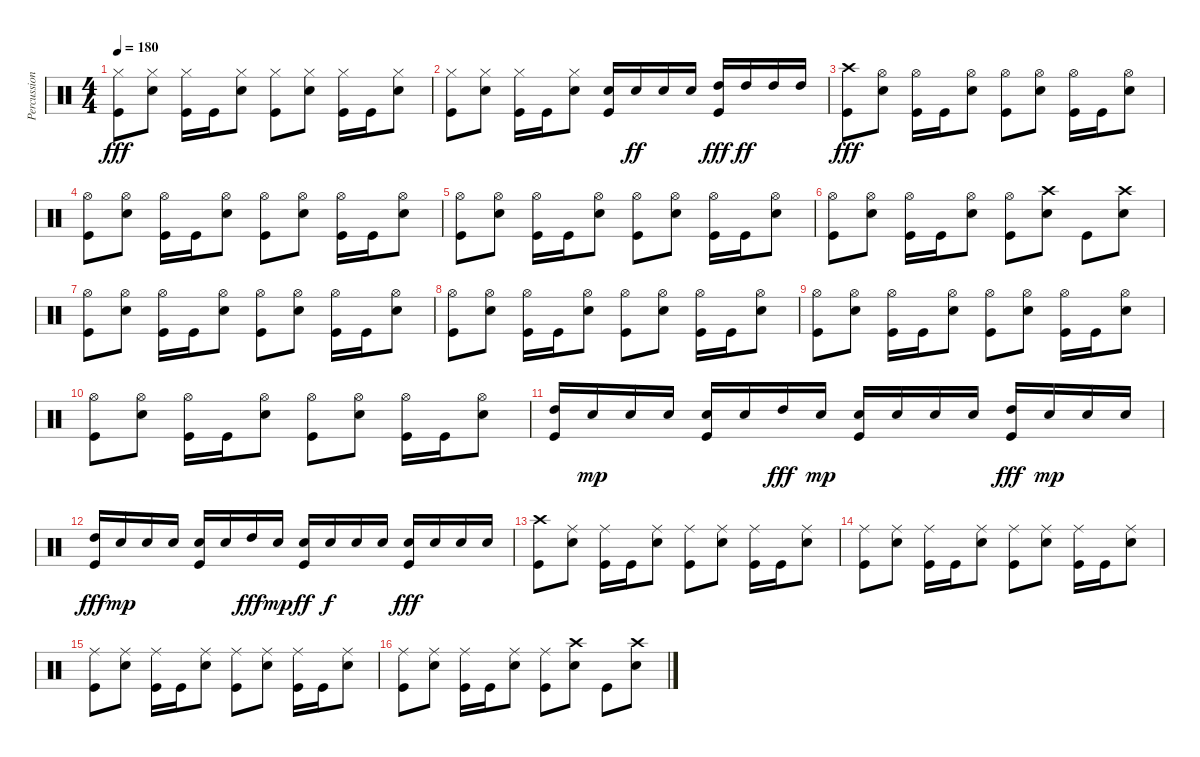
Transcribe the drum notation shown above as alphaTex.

\track ("Percussion" "Percussion") {instrument percussion}
\staff {score}
\articulation defaults
\ts (4 4)
\tempo 180
\clef neutral
\ks c
("Kick (hit)" "Hi-Hat (closed)").8{dy fff} ("Snare (hit) 2" "Hi-Hat (closed)").8 ("Kick (hit)" "Hi-Hat (closed)").16 "Kick (hit)".16 ("Snare (hit) 2" "Hi-Hat (closed)").8 ("Kick (hit)" "Hi-Hat (closed)").8 ("Snare (hit) 2" "Hi-Hat (closed)").8 ("Kick (hit)" "Hi-Hat (closed)").16 "Kick (hit)".16 ("Snare (hit) 2" "Hi-Hat (closed)").8 |
("Kick (hit)" "Hi-Hat (closed)").8 ("Snare (hit) 2" "Hi-Hat (closed)").8 ("Kick (hit)" "Hi-Hat (closed)").16 "Kick (hit)".16 ("Snare (hit) 2" "Hi-Hat (closed)").8 ("Kick (hit)" "Snare (hit) 2").16 "Snare (hit) 2".16{dy ff} "Snare (hit) 2".16 "Snare (hit) 2".16 ("Kick (hit)" "High Tom (hit)").16{dy fff} "High Tom (hit)".16{dy ff} "High Tom (hit)".16 "High Tom (hit)".16 |
("Kick (hit)" "Crash high (hit)").8{dy fff} ("Snare (hit) 2" "Hi-Hat (open)").8 ("Kick (hit)" "Hi-Hat (open)").16 "Kick (hit)".16 ("Snare (hit) 2" "Hi-Hat (open)").8 ("Kick (hit)" "Hi-Hat (open)").8 ("Snare (hit) 2" "Hi-Hat (open)").8 ("Kick (hit)" "Hi-Hat (open)").16 "Kick (hit)".16 ("Snare (hit) 2" "Hi-Hat (open)").8 |
("Kick (hit)" "Hi-Hat (open)").8 ("Snare (hit) 2" "Hi-Hat (open)").8 ("Kick (hit)" "Hi-Hat (open)").16 "Kick (hit)".16 ("Snare (hit) 2" "Hi-Hat (open)").8 ("Kick (hit)" "Hi-Hat (open)").8 ("Snare (hit) 2" "Hi-Hat (open)").8 ("Kick (hit)" "Hi-Hat (open)").16 "Kick (hit)".16 ("Snare (hit) 2" "Hi-Hat (open)").8 |
("Kick (hit)" "Hi-Hat (open)").8 ("Snare (hit) 2" "Hi-Hat (open)").8 ("Kick (hit)" "Hi-Hat (open)").16 "Kick (hit)".16 ("Snare (hit) 2" "Hi-Hat (open)").8 ("Kick (hit)" "Hi-Hat (open)").8 ("Snare (hit) 2" "Hi-Hat (open)").8 ("Kick (hit)" "Hi-Hat (open)").16 "Kick (hit)".16 ("Snare (hit) 2" "Hi-Hat (open)").8 |
("Kick (hit)" "Hi-Hat (open)").8 ("Snare (hit) 2" "Hi-Hat (open)").8 ("Kick (hit)" "Hi-Hat (open)").16 "Kick (hit)".16 ("Snare (hit) 2" "Hi-Hat (open)").8 ("Kick (hit)" "Hi-Hat (open)").8 ("Snare (hit) 2" "Crash high (hit)").8 "Kick (hit)".8 ("Snare (hit) 2" "Crash high (hit)").8 |
("Kick (hit)" "Hi-Hat (open)").8 ("Snare (hit) 2" "Hi-Hat (open)").8 ("Kick (hit)" "Hi-Hat (open)").16 "Kick (hit)".16 ("Snare (hit) 2" "Hi-Hat (open)").8 ("Kick (hit)" "Hi-Hat (open)").8 ("Snare (hit) 2" "Hi-Hat (open)").8 ("Kick (hit)" "Hi-Hat (open)").16 "Kick (hit)".16 ("Snare (hit) 2" "Hi-Hat (open)").8 |
("Kick (hit)" "Hi-Hat (open)").8 ("Snare (hit) 2" "Hi-Hat (open)").8 ("Kick (hit)" "Hi-Hat (open)").16 "Kick (hit)".16 ("Snare (hit) 2" "Hi-Hat (open)").8 ("Kick (hit)" "Hi-Hat (open)").8 ("Snare (hit) 2" "Hi-Hat (open)").8 ("Kick (hit)" "Hi-Hat (open)").16 "Kick (hit)".16 ("Snare (hit) 2" "Hi-Hat (open)").8 |
("Kick (hit)" "Hi-Hat (open)").8 ("Snare (hit) 2" "Hi-Hat (open)").8 ("Kick (hit)" "Hi-Hat (open)").16 "Kick (hit)".16 ("Snare (hit) 2" "Hi-Hat (open)").8 ("Kick (hit)" "Hi-Hat (open)").8 ("Snare (hit) 2" "Hi-Hat (open)").8 ("Kick (hit)" "Hi-Hat (open)").16 "Kick (hit)".16 ("Snare (hit) 2" "Hi-Hat (open)").8 |
("Kick (hit)" "Hi-Hat (open)").8 ("Snare (hit) 2" "Hi-Hat (open)").8 ("Kick (hit)" "Hi-Hat (open)").16 "Kick (hit)".16 ("Snare (hit) 2" "Hi-Hat (open)").8 ("Kick (hit)" "Hi-Hat (open)").8 ("Snare (hit) 2" "Hi-Hat (open)").8 ("Kick (hit)" "Hi-Hat (open)").16 "Kick (hit)".16 ("Snare (hit) 2" "Hi-Hat (open)").8 |
("Kick (hit)" "High Tom (hit)").16 "Snare (hit) 2".16{dy mp} "Snare (hit) 2".16 "Snare (hit) 2".16 ("Kick (hit)" "Snare (hit) 2").16 "Snare (hit) 2".16 "High Tom (hit)".16{dy fff} "Snare (hit) 2".16{dy mp} ("Kick (hit)" "Snare (hit) 2").16 "Snare (hit) 2".16 "Snare (hit) 2".16 "Snare (hit) 2".16 ("Kick (hit)" "High Tom (hit)").16{dy fff} "Snare (hit) 2".16{dy mp} "Snare (hit) 2".16 "Snare (hit) 2".16 |
("Kick (hit)" "High Tom (hit)").16{dy fff} "Snare (hit) 2".16{dy mp} "Snare (hit) 2".16 "Snare (hit) 2".16 ("Kick (hit)" "Snare (hit) 2").16 "Snare (hit) 2".16 "High Tom (hit)".16{dy fff} "Snare (hit) 2".16{dy mp} ("Kick (hit)" "Snare (hit) 2").16{dy ff} "Snare (hit) 2".16{dy f} "Snare (hit) 2".16 "Snare (hit) 2".16 ("Kick (hit)" "Snare (hit) 2").16{dy fff} "Snare (hit) 2".16 "Snare (hit) 2".16 "Snare (hit) 2".16 |
("Kick (hit)" "Crash high (hit)").8 ("Snare (hit) 2" "Ride (middle)").8 ("Kick (hit)" "Ride (middle)").16 "Kick (hit)".16 ("Snare (hit) 2" "Ride (middle)").8 ("Kick (hit)" "Ride (middle)").8 ("Snare (hit) 2" "Ride (middle)").8 ("Kick (hit)" "Ride (middle)").16 "Kick (hit)".16 ("Snare (hit) 2" "Ride (middle)").8 |
("Kick (hit)" "Ride (middle)").8 ("Snare (hit) 2" "Ride (middle)").8 ("Kick (hit)" "Ride (middle)").16 "Kick (hit)".16 ("Snare (hit) 2" "Ride (middle)").8 ("Kick (hit)" "Ride (middle)").8 ("Snare (hit) 2" "Ride (middle)").8 ("Kick (hit)" "Ride (middle)").16 "Kick (hit)".16 ("Snare (hit) 2" "Ride (middle)").8 |
("Kick (hit)" "Ride (middle)").8 ("Snare (hit) 2" "Ride (middle)").8 ("Kick (hit)" "Ride (middle)").16 "Kick (hit)".16 ("Snare (hit) 2" "Ride (middle)").8 ("Kick (hit)" "Ride (middle)").8 ("Snare (hit) 2" "Ride (middle)").8 ("Kick (hit)" "Ride (middle)").16 "Kick (hit)".16 ("Snare (hit) 2" "Ride (middle)").8 |
("Kick (hit)" "Ride (middle)").8 ("Snare (hit) 2" "Ride (middle)").8 ("Kick (hit)" "Ride (middle)").16 "Kick (hit)".16 ("Snare (hit) 2" "Ride (middle)").8 ("Kick (hit)" "Ride (middle)").8 ("Snare (hit) 2" "Crash high (hit)").8 "Kick (hit)".8 ("Snare (hit) 2" "Crash high (hit)").8
